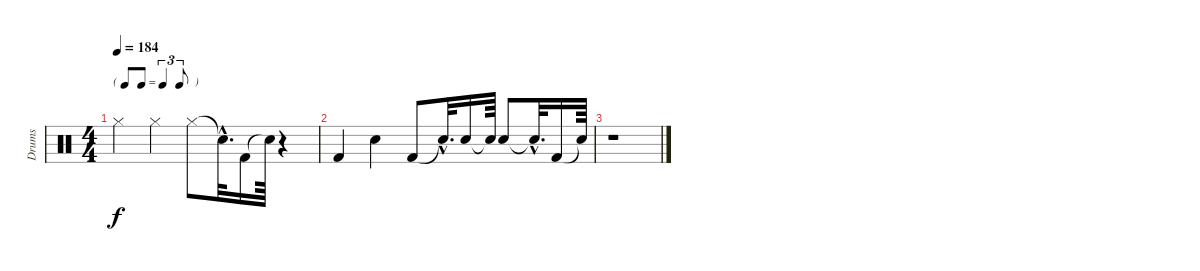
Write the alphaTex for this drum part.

\track ("Drums" "Drums") {instrument percussion}
\staff {score}
\articulation defaults
\ts (4 4)
\tf triplet8th
\tempo 184
\clef neutral
\ks c "Hi-Hat (closed)".4{dy f} "Hi-Hat (closed)".4 "Hi-Hat (closed)".8 "Snare (hit)"{hac t}.32{d} "Kick (hit) 2".16 "Snare (hit)"{t}.64
r.4 |
"Kick (hit) 2".4 "Snare (hit) 2".4 "Kick (hit) 2".8 "Snare (hit)"{hac t}.32{d} "Snare (hit) 2".16 "Snare (hit)"{t}.64 "Snare (hit) 2".8 "Snare (hit)"{hac t}.32{d} "Kick (hit) 2".16 "Snare (hit)"{t}.64 |
r.1
